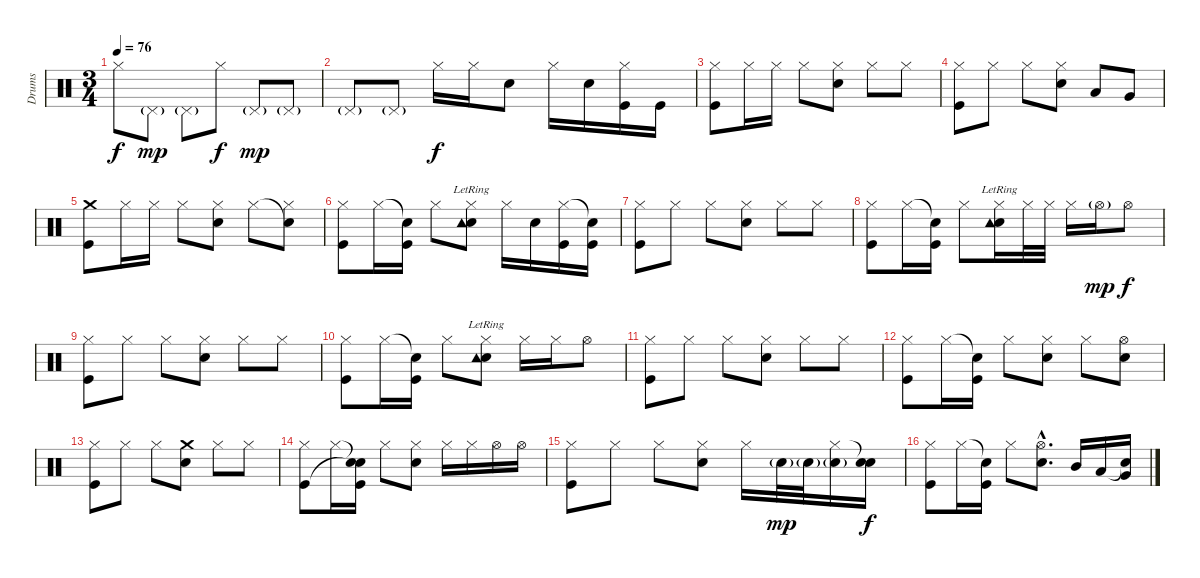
\track ("Drums" "Drums") {instrument percussion}
\staff {score}
\articulation defaults
\ts (3 4)
\tempo 76
\clef neutral
\ks c "Hi-Hat (closed)".8{dy f} "Pedal Hi-Hat (hit)"{g}.8{dy mp} "Pedal Hi-Hat (hit)"{g}.8 "Hi-Hat (closed)".8{dy f} "Pedal Hi-Hat (hit)"{g}.8{dy mp} "Pedal Hi-Hat (hit)"{g}.8
|
"Pedal Hi-Hat (hit)"{g}.8 "Pedal Hi-Hat (hit)"{g}.8 "Hi-Hat (closed)".16{dy f} "Hi-Hat (closed)".16 "Electric Snare (hit)".8 "Hi-Hat (closed)".16 "Electric Snare (hit)".16 ("Hi-Hat (closed)" "Kick (hit)").16 "Kick (hit)".16 |
("Hi-Hat (closed)" "Kick (hit)").8 "Hi-Hat (closed)".16 "Hi-Hat (closed)".16 "Hi-Hat (closed)".8 ("Hi-Hat (closed)" "Electric Snare (hit)").8 "Hi-Hat (closed)".8 "Hi-Hat (closed)".8 |
("Hi-Hat (closed)" "Kick (hit)").8 "Hi-Hat (closed)".8 "Hi-Hat (closed)".8 ("Hi-Hat (closed)" "Electric Snare (hit)").8 "Low Tom (hit)".8 "Very Low Tom (hit)".8 |
("Crash medium (hit)" "Kick (hit)").8 "Hi-Hat (closed)".16 "Hi-Hat (closed)".16 "Hi-Hat (closed)".8 ("Hi-Hat (closed)" "Electric Snare (hit)").8 "Hi-Hat (closed)".8 ("Snare (hit)"{t} "Hi-Hat (closed)").8 |
("Hi-Hat (closed)" "Kick (hit)").8 "Hi-Hat (closed)".16 ("Snare (hit)"{t} "Kick (hit)").16 "Hi-Hat (closed)".8 ("Hi-Hat (closed)" "Electric Snare (hit)" "Tambourine (hit)"{lr}).8 "Hi-Hat (closed)".16 "Electric Snare (hit)".16 ("Hi-Hat (closed)" "Kick (hit)").16 ("Snare (hit)"{t} "Kick (hit)").16 |
("Hi-Hat (closed)" "Kick (hit)").8 "Hi-Hat (closed)".8 "Hi-Hat (closed)".8 ("Hi-Hat (closed)" "Electric Snare (hit)").8 "Hi-Hat (closed)".8 "Hi-Hat (closed)".8 |
("Hi-Hat (closed)" "Kick (hit)").8 "Hi-Hat (closed)".16 ("Snare (hit)"{t} "Kick (hit)").16 "Hi-Hat (closed)".8 ("Hi-Hat (closed)" "Electric Snare (hit)" "Tambourine (hit)"{lr}).16 "Hi-Hat (closed)".32 "Hi-Hat (closed)".32 "Hi-Hat (closed)".16 "Hi-Hat (open)"{g}.16{dy mp} "Hi-Hat (open)".8{dy f} |
("Hi-Hat (closed)" "Kick (hit)").8 "Hi-Hat (closed)".8 "Hi-Hat (closed)".8 ("Hi-Hat (closed)" "Electric Snare (hit)").8 "Hi-Hat (closed)".8 "Hi-Hat (closed)".8 |
("Hi-Hat (closed)" "Kick (hit)").8 "Hi-Hat (closed)".16 ("Snare (hit)"{t} "Kick (hit)").16 "Hi-Hat (closed)".8 ("Hi-Hat (closed)" "Electric Snare (hit)" "Tambourine (hit)"{lr}).8 "Hi-Hat (closed)".16 "Hi-Hat (closed)".16 "Hi-Hat (open)".8 |
("Hi-Hat (closed)" "Kick (hit)").8 "Hi-Hat (closed)".8 "Hi-Hat (closed)".8 ("Hi-Hat (closed)" "Electric Snare (hit)").8 "Hi-Hat (closed)".8 "Hi-Hat (closed)".8 |
("Hi-Hat (closed)" "Kick (hit)").8 "Hi-Hat (closed)".16 ("Snare (hit)"{t} "Kick (hit)").16 "Hi-Hat (closed)".8 ("Hi-Hat (closed)" "Electric Snare (hit)").8 "Hi-Hat (closed)".8 ("Hi-Hat (open)" "Electric Snare (hit)").8 |
("Hi-Hat (closed)" "Kick (hit)").8 "Hi-Hat (closed)".8 "Hi-Hat (closed)".8 ("Crash medium (hit)" "Electric Snare (hit)").8 "Hi-Hat (closed)".8 "Hi-Hat (closed)".8 |
("Hi-Hat (closed)" "Kick (hit)").8 "Hi-Hat (closed)".16 ("Snare (hit)"{t} "Snare (hit)"{t} "Kick (hit)").16 "Hi-Hat (closed)".8 ("Hi-Hat (closed)" "Electric Snare (hit)").8 "Hi-Hat (closed)".16 "Hi-Hat (closed)".16 "Hi-Hat (open)".16 "Hi-Hat (open)".16 |
("Hi-Hat (closed)" "Kick (hit)").8 "Hi-Hat (closed)".8 "Hi-Hat (closed)".8 ("Hi-Hat (closed)" "Electric Snare (hit)").8 "Hi-Hat (closed)".16 "Electric Snare (hit)"{g}.32{dy mp} "Electric Snare (hit)"{g}.32 ("Hi-Hat (closed)" "Electric Snare (hit)"{g}).16 ("Snare (hit)"{t} "Electric Snare (hit)").16{dy f} |
("Hi-Hat (closed)" "Kick (hit)").8 "Hi-Hat (closed)".16 ("Snare (hit)"{t} "Kick (hit)").16 "Hi-Hat (closed)".8 ("Hi-Hat (open)"{hac} "Electric Snare (hit)"{hac}).8{d} "Mid Tom (hit)".16 "Low Tom (hit)".16 ("Snare (hit)"{t} "Very Low Tom (hit)").16
